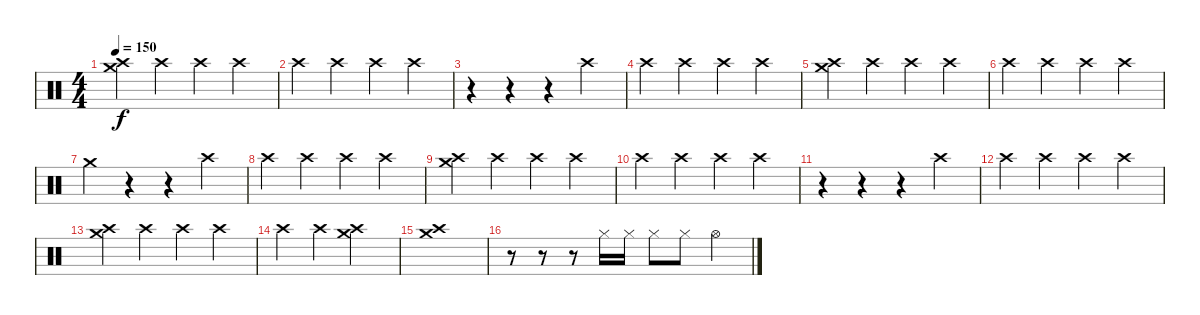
\track "" {instrument percussion}
\staff {score}
\articulation defaults
\ts (4 4)
\tempo 150
\clef neutral
\ks c
("Crash medium (hit)" "Crash high (hit)").4{dy f} "Crash high (hit)".4 "Crash high (hit)".4 "Crash high (hit)".4 |
"Crash high (hit)".4 "Crash high (hit)".4 "Crash high (hit)".4 "Crash high (hit)".4 |
r.4 r.4 r.4 "Crash high (hit)".4 |
"Crash high (hit)".4 "Crash high (hit)".4 "Crash high (hit)".4 "Crash high (hit)".4 |
("Crash medium (hit)" "Crash high (hit)").4 "Crash high (hit)".4 "Crash high (hit)".4 "Crash high (hit)".4 |
"Crash high (hit)".4 "Crash high (hit)".4 "Crash high (hit)".4 "Crash high (hit)".4 |
"Crash medium (hit)".4 r.4 r.4 "Crash high (hit)".4 |
"Crash high (hit)".4 "Crash high (hit)".4 "Crash high (hit)".4 "Crash high (hit)".4 |
("Crash medium (hit)" "Crash high (hit)").4 "Crash high (hit)".4 "Crash high (hit)".4 "Crash high (hit)".4 |
"Crash high (hit)".4 "Crash high (hit)".4 "Crash high (hit)".4 "Crash high (hit)".4 |
r.4 r.4 r.4 "Crash high (hit)".4 |
"Crash high (hit)".4 "Crash high (hit)".4 "Crash high (hit)".4 "Crash high (hit)".4 |
("Crash medium (hit)" "Crash high (hit)").4 "Crash high (hit)".4 "Crash high (hit)".4 "Crash high (hit)".4 |
"Crash high (hit)".4 "Crash high (hit)".4 ("Crash medium (hit)" "Crash high (hit)").2 |
("Crash medium (hit)" "Crash high (hit)").1 |
r.8 r.8 r.8 "Hi-Hat (closed)".16 "Hi-Hat (closed)".16 "Hi-Hat (closed)".8 "Hi-Hat (closed)".8 "Hi-Hat (open)".4
